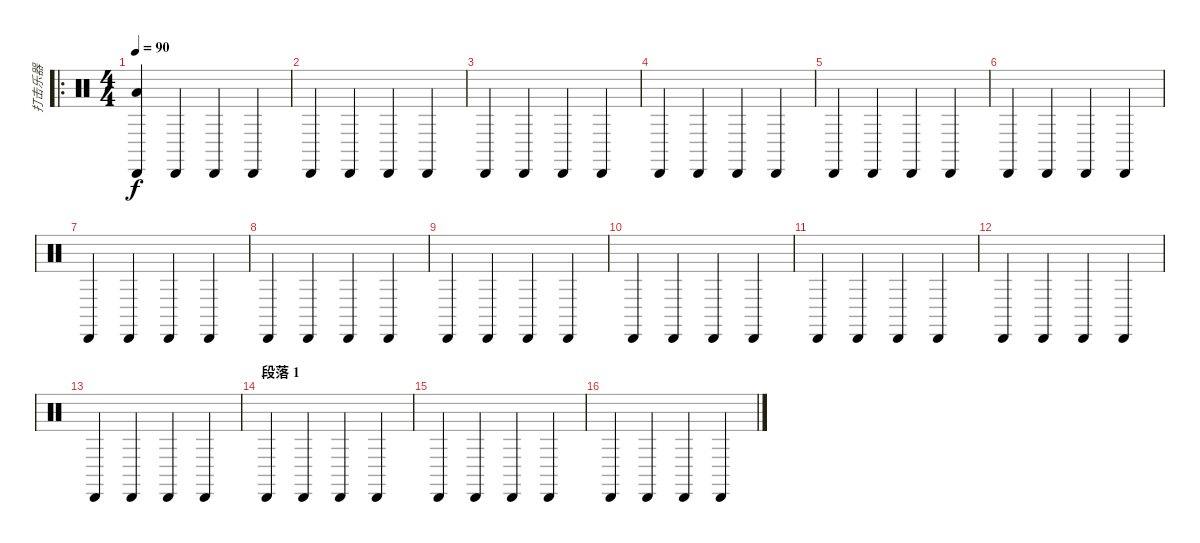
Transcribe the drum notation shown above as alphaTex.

\track ("打击乐器" "打击乐器") {instrument percussion}
\staff {score}
\articulation defaults
\ro
\ts (4 4)
\tempo 90
\clef neutral
\ks c
("Low Floor Tom (hit)" "Cabasa (hit)").4{dy f} "Cabasa (hit)".4 "Cabasa (hit)".4 "Cabasa (hit)".4 |
"Cabasa (hit)".4 "Cabasa (hit)".4 "Cabasa (hit)".4 "Cabasa (hit)".4 |
"Cabasa (hit)".4 "Cabasa (hit)".4 "Cabasa (hit)".4 "Cabasa (hit)".4 |
"Cabasa (hit)".4 "Cabasa (hit)".4 "Cabasa (hit)".4 "Cabasa (hit)".4 |
"Cabasa (hit)".4 "Cabasa (hit)".4 "Cabasa (hit)".4 "Cabasa (hit)".4 |
"Cabasa (hit)".4 "Cabasa (hit)".4 "Cabasa (hit)".4 "Cabasa (hit)".4 |
"Cabasa (hit)".4 "Cabasa (hit)".4 "Cabasa (hit)".4 "Cabasa (hit)".4 |
"Cabasa (hit)".4 "Cabasa (hit)".4 "Cabasa (hit)".4 "Cabasa (hit)".4 |
"Cabasa (hit)".4 "Cabasa (hit)".4 "Cabasa (hit)".4 "Cabasa (hit)".4 |
"Cabasa (hit)".4 "Cabasa (hit)".4 "Cabasa (hit)".4 "Cabasa (hit)".4 |
"Cabasa (hit)".4 "Cabasa (hit)".4 "Cabasa (hit)".4 "Cabasa (hit)".4 |
"Cabasa (hit)".4 "Cabasa (hit)".4 "Cabasa (hit)".4 "Cabasa (hit)".4 |
"Cabasa (hit)".4 "Cabasa (hit)".4 "Cabasa (hit)".4 "Cabasa (hit)".4 |
\section ("" "段落 1")
"Cabasa (hit)".4 "Cabasa (hit)".4 "Cabasa (hit)".4 "Cabasa (hit)".4 |
"Cabasa (hit)".4 "Cabasa (hit)".4 "Cabasa (hit)".4 "Cabasa (hit)".4 |
"Cabasa (hit)".4 "Cabasa (hit)".4 "Cabasa (hit)".4 "Cabasa (hit)".4
